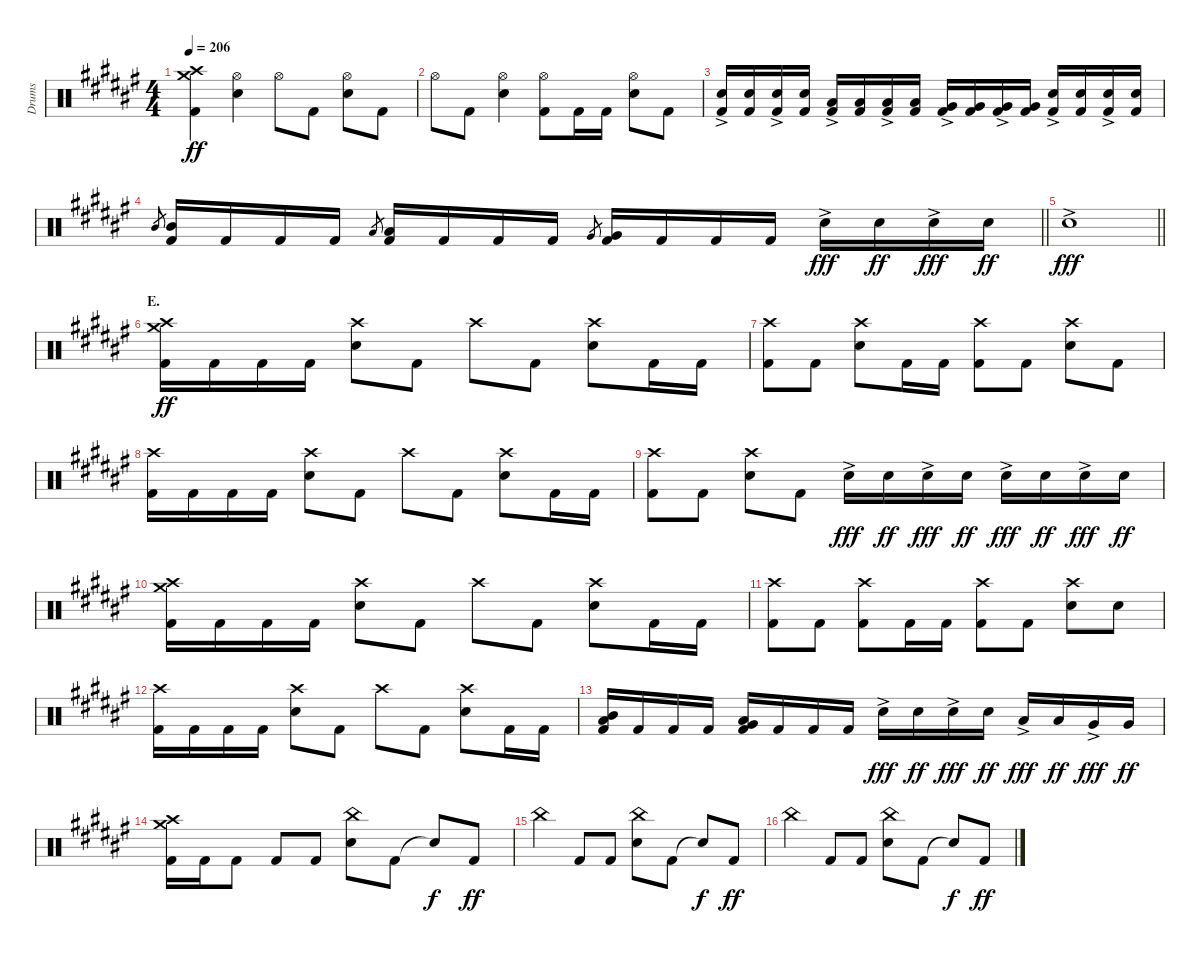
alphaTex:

\track ("Drums" "Drums") {instrument percussion}
\staff {score}
\articulation defaults
\ts (4 4)
\tempo 206
\clef neutral
\ks f#
("Crash medium (hit)" "Crash high (hit)" "Kick (hit) 2").4{dy ff} ("Hi-Hat (open)" "Electric Snare (hit)").4 "Hi-Hat (open)".8 "Kick (hit) 2".8 ("Hi-Hat (open)" "Electric Snare (hit)").8 "Kick (hit) 2".8 |
"Hi-Hat (open)".8 "Kick (hit) 2".8 ("Hi-Hat (open)" "Electric Snare (hit)").4 ("Hi-Hat (open)" "Kick (hit) 2").8 "Kick (hit) 2".16 "Kick (hit) 2".16 ("Hi-Hat (open)" "Electric Snare (hit)").8 "Kick (hit) 2".8 |
("Electric Snare (hit)"{ac} "Kick (hit) 2").16 ("Electric Snare (hit)" "Kick (hit) 2").16 ("Electric Snare (hit)"{ac} "Kick (hit) 2").16 ("Electric Snare (hit)" "Kick (hit) 2").16 ("Low Tom (hit)"{ac} "Kick (hit) 2").16 ("Low Tom (hit)" "Kick (hit) 2").16 ("Low Tom (hit)"{ac} "Kick (hit) 2").16 ("Low Tom (hit)" "Kick (hit) 2").16 ("Very Low Tom (hit)"{ac} "Kick (hit) 2").16 ("Very Low Tom (hit)" "Kick (hit) 2").16 ("Very Low Tom (hit)"{ac} "Kick (hit) 2").16 ("Very Low Tom (hit)" "Kick (hit) 2").16 ("Electric Snare (hit)"{ac} "Kick (hit) 2").16 ("Electric Snare (hit)" "Kick (hit) 2").16 ("Electric Snare (hit)"{ac} "Kick (hit) 2").16 ("Electric Snare (hit)" "Kick (hit) 2").16 |
\barLineRight lightlight "Mid Tom (hit)".8{gr}
("Mid Tom (hit)" "Kick (hit) 2").16 "Kick (hit) 2".16 "Kick (hit) 2".16 "Kick (hit) 2".16 "Low Tom (hit)".8{gr} ("Low Tom (hit)" "Kick (hit) 2").16 "Kick (hit) 2".16 "Kick (hit) 2".16 "Kick (hit) 2".16 "Very Low Tom (hit)".8{gr} ("Very Low Tom (hit)" "Kick (hit) 2").16 "Kick (hit) 2".16 "Kick (hit) 2".16 "Kick (hit) 2".16 "Electric Snare (hit)"{ac}.16{dy fff} "Electric Snare (hit)".16{dy ff} "Electric Snare (hit)"{ac}.16{dy fff} "Electric Snare (hit)".16{dy ff} |
\section ("" "")
\barLineRight lightlight "Electric Snare (hit)"{ac}.1{dy fff}
|
\section ("" "E.")
("Crash medium (hit)" "Crash high (hit)" "Kick (hit) 2").16{dy ff} "Kick (hit) 2".16 "Kick (hit) 2".16 "Kick (hit) 2".16 ("Crash high (hit)" "Electric Snare (hit)").8 "Kick (hit) 2".8 "Crash high (hit)".8 "Kick (hit) 2".8 ("Crash high (hit)" "Electric Snare (hit)").8 "Kick (hit) 2".16 "Kick (hit) 2".16 |
("Crash high (hit)" "Kick (hit) 2").8 "Kick (hit) 2".8 ("Crash high (hit)" "Electric Snare (hit)").8 "Kick (hit) 2".16 "Kick (hit) 2".16 ("Crash high (hit)" "Kick (hit) 2").8 "Kick (hit) 2".8 ("Crash high (hit)" "Electric Snare (hit)").8 "Kick (hit) 2".8 |
("Crash high (hit)" "Kick (hit) 2").16 "Kick (hit) 2".16 "Kick (hit) 2".16 "Kick (hit) 2".16 ("Crash high (hit)" "Electric Snare (hit)").8 "Kick (hit) 2".8 "Crash high (hit)".8 "Kick (hit) 2".8 ("Crash high (hit)" "Electric Snare (hit)").8 "Kick (hit) 2".16 "Kick (hit) 2".16 |
("Crash high (hit)" "Kick (hit) 2").8 "Kick (hit) 2".8 ("Crash high (hit)" "Electric Snare (hit)").8 "Kick (hit) 2".8 "Electric Snare (hit)"{ac}.16{dy fff} "Electric Snare (hit)".16{dy ff} "Electric Snare (hit)"{ac}.16{dy fff} "Electric Snare (hit)".16{dy ff} "Electric Snare (hit)"{ac}.16{dy fff} "Electric Snare (hit)".16{dy ff} "Electric Snare (hit)"{ac}.16{dy fff} "Electric Snare (hit)".16{dy ff} |
("Crash medium (hit)" "Crash high (hit)" "Kick (hit) 2").16 "Kick (hit) 2".16 "Kick (hit) 2".16 "Kick (hit) 2".16 ("Crash high (hit)" "Electric Snare (hit)").8 "Kick (hit) 2".8 "Crash high (hit)".8 "Kick (hit) 2".8 ("Crash high (hit)" "Electric Snare (hit)").8 "Kick (hit) 2".16 "Kick (hit) 2".16 |
("Crash high (hit)" "Kick (hit) 2").8 "Kick (hit) 2".8 ("Crash high (hit)" "Kick (hit) 2").8 "Kick (hit) 2".16 "Kick (hit) 2".16 ("Crash high (hit)" "Kick (hit) 2").8 "Kick (hit) 2".8 ("Crash high (hit)" "Electric Snare (hit)").8 "Electric Snare (hit)".8 |
("Crash high (hit)" "Kick (hit) 2").16 "Kick (hit) 2".16 "Kick (hit) 2".16 "Kick (hit) 2".16 ("Crash high (hit)" "Electric Snare (hit)").8 "Kick (hit) 2".8 "Crash high (hit)".8 "Kick (hit) 2".8 ("Crash high (hit)" "Electric Snare (hit)").8 "Kick (hit) 2".16 "Kick (hit) 2".16 |
("Mid Tom (hit)" "Low Tom (hit)" "Kick (hit) 2").16 "Kick (hit) 2".16 "Kick (hit) 2".16 "Kick (hit) 2".16 ("Low Tom (hit)" "Very Low Tom (hit)" "Kick (hit) 2").16 "Kick (hit) 2".16 "Kick (hit) 2".16 "Kick (hit) 2".16 "Electric Snare (hit)"{ac}.16{dy fff} "Electric Snare (hit)".16{dy ff} "Electric Snare (hit)"{ac}.16{dy fff} "Electric Snare (hit)".16{dy ff} "Low Tom (hit)"{ac}.16{dy fff} "Low Tom (hit)".16{dy ff} "Very Low Tom (hit)"{ac}.16{dy fff} "Very Low Tom (hit)".16{dy ff} |
("Crash medium (hit)" "Crash high (hit)" "Kick (hit) 2").16 "Kick (hit) 2".16 "Kick (hit) 2".8 "Kick (hit) 2".8 "Kick (hit) 2".8 ("China (hit)" "Electric Snare (hit)").8 "Kick (hit) 2".8 "Snare (hit)"{t}.8{dy f} "Kick (hit) 2".8{dy ff} |
"China (hit)".4 "Kick (hit) 2".8 "Kick (hit) 2".8 ("China (hit)" "Electric Snare (hit)").8 "Kick (hit) 2".8 "Snare (hit)"{t}.8{dy f} "Kick (hit) 2".8{dy ff} |
"China (hit)".4 "Kick (hit) 2".8 "Kick (hit) 2".8 ("China (hit)" "Electric Snare (hit)").8 "Kick (hit) 2".8 "Snare (hit)"{t}.8{dy f} "Kick (hit) 2".8{dy ff}
